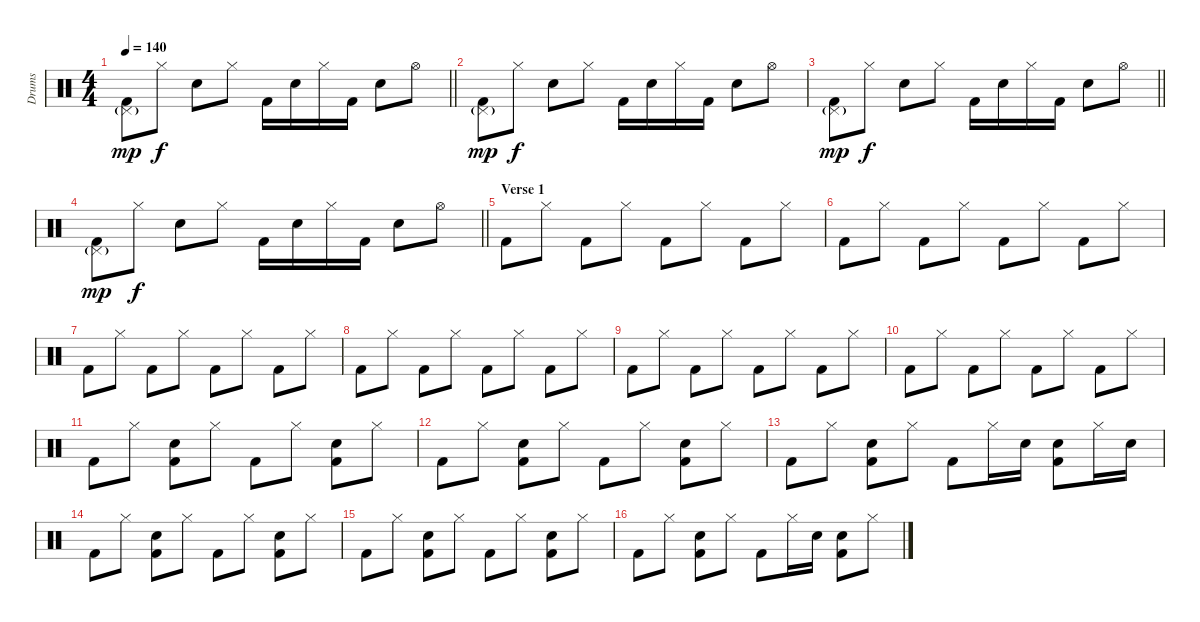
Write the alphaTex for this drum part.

\track ("Drums" "Drums") {instrument percussion}
\staff {score}
\articulation defaults
\ts (4 4)
\tempo 140
\clef neutral
\barLineRight lightlight
\ks c
("Pedal Hi-Hat (hit)"{g} "Kick (hit) 2").8{dy mp} "Hi-Hat (closed)".8{dy f} "Snare (hit) 2".8 "Hi-Hat (closed)".8 "Kick (hit) 2".16 "Snare (hit) 2".16 "Hi-Hat (closed)".16 "Kick (hit) 2".16 "Snare (hit) 2".8 "Hi-Hat (open)".8 |
("Pedal Hi-Hat (hit)"{g} "Kick (hit) 2").8{dy mp} "Hi-Hat (closed)".8{dy f} "Snare (hit) 2".8 "Hi-Hat (closed)".8 "Kick (hit) 2".16 "Snare (hit) 2".16 "Hi-Hat (closed)".16 "Kick (hit) 2".16 "Snare (hit) 2".8 "Hi-Hat (open)".8 |
\barLineRight lightlight
("Pedal Hi-Hat (hit)"{g} "Kick (hit) 2").8{dy mp} "Hi-Hat (closed)".8{dy f} "Snare (hit) 2".8 "Hi-Hat (closed)".8 "Kick (hit) 2".16 "Snare (hit) 2".16 "Hi-Hat (closed)".16 "Kick (hit) 2".16 "Snare (hit) 2".8 "Hi-Hat (open)".8 |
\barLineRight lightlight
("Pedal Hi-Hat (hit)"{g} "Kick (hit) 2").8{dy mp} "Hi-Hat (closed)".8{dy f} "Snare (hit) 2".8 "Hi-Hat (closed)".8 "Kick (hit) 2".16 "Snare (hit) 2".16 "Hi-Hat (closed)".16 "Kick (hit) 2".16 "Snare (hit) 2".8 "Hi-Hat (open)".8 |
\section ("" "Verse 1")
"Kick (hit) 2".8 "Hi-Hat (closed)".8 "Kick (hit) 2".8 "Hi-Hat (closed)".8 "Kick (hit) 2".8 "Hi-Hat (closed)".8 "Kick (hit) 2".8 "Hi-Hat (closed)".8 |
"Kick (hit) 2".8 "Hi-Hat (closed)".8 "Kick (hit) 2".8 "Hi-Hat (closed)".8 "Kick (hit) 2".8 "Hi-Hat (closed)".8 "Kick (hit) 2".8 "Hi-Hat (closed)".8 |
"Kick (hit) 2".8 "Hi-Hat (closed)".8 "Kick (hit) 2".8 "Hi-Hat (closed)".8 "Kick (hit) 2".8 "Hi-Hat (closed)".8 "Kick (hit) 2".8 "Hi-Hat (closed)".8 |
"Kick (hit) 2".8 "Hi-Hat (closed)".8 "Kick (hit) 2".8 "Hi-Hat (closed)".8 "Kick (hit) 2".8 "Hi-Hat (closed)".8 "Kick (hit) 2".8 "Hi-Hat (closed)".8 |
"Kick (hit) 2".8 "Hi-Hat (closed)".8 "Kick (hit) 2".8 "Hi-Hat (closed)".8 "Kick (hit) 2".8 "Hi-Hat (closed)".8 "Kick (hit) 2".8 "Hi-Hat (closed)".8 |
"Kick (hit) 2".8 "Hi-Hat (closed)".8 "Kick (hit) 2".8 "Hi-Hat (closed)".8 "Kick (hit) 2".8 "Hi-Hat (closed)".8 "Kick (hit) 2".8 "Hi-Hat (closed)".8 |
"Kick (hit) 2".8 "Hi-Hat (closed)".8 ("Snare (hit) 2" "Kick (hit) 2").8 "Hi-Hat (closed)".8 "Kick (hit) 2".8 "Hi-Hat (closed)".8 ("Snare (hit) 2" "Kick (hit) 2").8 "Hi-Hat (closed)".8 |
"Kick (hit) 2".8 "Hi-Hat (closed)".8 ("Snare (hit) 2" "Kick (hit) 2").8 "Hi-Hat (closed)".8 "Kick (hit) 2".8 "Hi-Hat (closed)".8 ("Snare (hit) 2" "Kick (hit) 2").8 "Hi-Hat (closed)".8 |
"Kick (hit) 2".8 "Hi-Hat (closed)".8 ("Snare (hit) 2" "Kick (hit) 2").8 "Hi-Hat (closed)".8 "Kick (hit) 2".8 "Hi-Hat (closed)".16 "Snare (hit) 2".16 ("Snare (hit) 2" "Kick (hit) 2").8 "Hi-Hat (closed)".16 "Snare (hit) 2".16 |
"Kick (hit) 2".8 "Hi-Hat (closed)".8 ("Snare (hit) 2" "Kick (hit) 2").8 "Hi-Hat (closed)".8 "Kick (hit) 2".8 "Hi-Hat (closed)".8 ("Snare (hit) 2" "Kick (hit) 2").8 "Hi-Hat (closed)".8 |
"Kick (hit) 2".8 "Hi-Hat (closed)".8 ("Snare (hit) 2" "Kick (hit) 2").8 "Hi-Hat (closed)".8 "Kick (hit) 2".8 "Hi-Hat (closed)".8 ("Snare (hit) 2" "Kick (hit) 2").8 "Hi-Hat (closed)".8 |
"Kick (hit) 2".8 "Hi-Hat (closed)".8 ("Snare (hit) 2" "Kick (hit) 2").8 "Hi-Hat (closed)".8 "Kick (hit) 2".8 "Hi-Hat (closed)".16 "Snare (hit) 2".16 ("Snare (hit) 2" "Kick (hit) 2").8 "Hi-Hat (closed)".8
